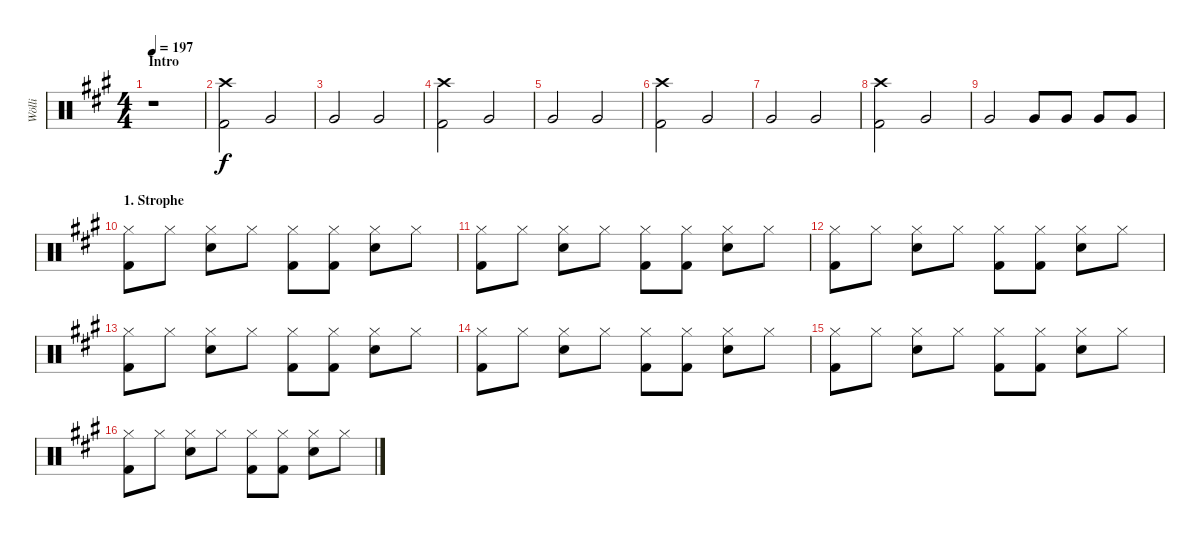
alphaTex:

\track ("Wölli" "Wölli") {instrument percussion}
\staff {score}
\articulation defaults
\ts (4 4)
\section ("" "Intro")
\tempo 197
\clef neutral
\ks a
r.1{dy f} |
("Crash high (hit)" "Kick (hit) 2").2 "Very Low Tom (hit)".2 |
"Very Low Tom (hit)".2 "Very Low Tom (hit)".2 |
("Crash high (hit)" "Kick (hit) 2").2 "Very Low Tom (hit)".2 |
"Very Low Tom (hit)".2 "Very Low Tom (hit)".2 |
("Crash high (hit)" "Kick (hit) 2").2 "Very Low Tom (hit)".2 |
"Very Low Tom (hit)".2 "Very Low Tom (hit)".2 |
("Crash high (hit)" "Kick (hit) 2").2 "Very Low Tom (hit)".2 |
"Very Low Tom (hit)".2 "Very Low Tom (hit)".8 "Very Low Tom (hit)".8 "Very Low Tom (hit)".8 "Very Low Tom (hit)".8 |
\section ("" "1. Strophe")
("Hi-Hat (closed)" "Kick (hit) 2").8 "Hi-Hat (closed)".8 ("Hi-Hat (closed)" "Snare (hit) 2").8 "Hi-Hat (closed)".8 ("Hi-Hat (closed)" "Kick (hit) 2").8 ("Hi-Hat (closed)" "Kick (hit) 2").8 ("Hi-Hat (closed)" "Snare (hit) 2").8 "Hi-Hat (closed)".8 |
("Hi-Hat (closed)" "Kick (hit) 2").8 "Hi-Hat (closed)".8 ("Hi-Hat (closed)" "Snare (hit) 2").8 "Hi-Hat (closed)".8 ("Hi-Hat (closed)" "Kick (hit) 2").8 ("Hi-Hat (closed)" "Kick (hit) 2").8 ("Hi-Hat (closed)" "Snare (hit) 2").8 "Hi-Hat (closed)".8 |
("Hi-Hat (closed)" "Kick (hit) 2").8 "Hi-Hat (closed)".8 ("Hi-Hat (closed)" "Snare (hit) 2").8 "Hi-Hat (closed)".8 ("Hi-Hat (closed)" "Kick (hit) 2").8 ("Hi-Hat (closed)" "Kick (hit) 2").8 ("Hi-Hat (closed)" "Snare (hit) 2").8 "Hi-Hat (closed)".8 |
("Hi-Hat (closed)" "Kick (hit) 2").8 "Hi-Hat (closed)".8 ("Hi-Hat (closed)" "Snare (hit) 2").8 "Hi-Hat (closed)".8 ("Hi-Hat (closed)" "Kick (hit) 2").8 ("Hi-Hat (closed)" "Kick (hit) 2").8 ("Hi-Hat (closed)" "Snare (hit) 2").8 "Hi-Hat (closed)".8 |
("Hi-Hat (closed)" "Kick (hit) 2").8 "Hi-Hat (closed)".8 ("Hi-Hat (closed)" "Snare (hit) 2").8 "Hi-Hat (closed)".8 ("Hi-Hat (closed)" "Kick (hit) 2").8 ("Hi-Hat (closed)" "Kick (hit) 2").8 ("Hi-Hat (closed)" "Snare (hit) 2").8 "Hi-Hat (closed)".8 |
("Hi-Hat (closed)" "Kick (hit) 2").8 "Hi-Hat (closed)".8 ("Hi-Hat (closed)" "Snare (hit) 2").8 "Hi-Hat (closed)".8 ("Hi-Hat (closed)" "Kick (hit) 2").8 ("Hi-Hat (closed)" "Kick (hit) 2").8 ("Hi-Hat (closed)" "Snare (hit) 2").8 "Hi-Hat (closed)".8 |
("Hi-Hat (closed)" "Kick (hit) 2").8 "Hi-Hat (closed)".8 ("Hi-Hat (closed)" "Snare (hit) 2").8 "Hi-Hat (closed)".8 ("Hi-Hat (closed)" "Kick (hit) 2").8 ("Hi-Hat (closed)" "Kick (hit) 2").8 ("Hi-Hat (closed)" "Snare (hit) 2").8 "Hi-Hat (closed)".8
